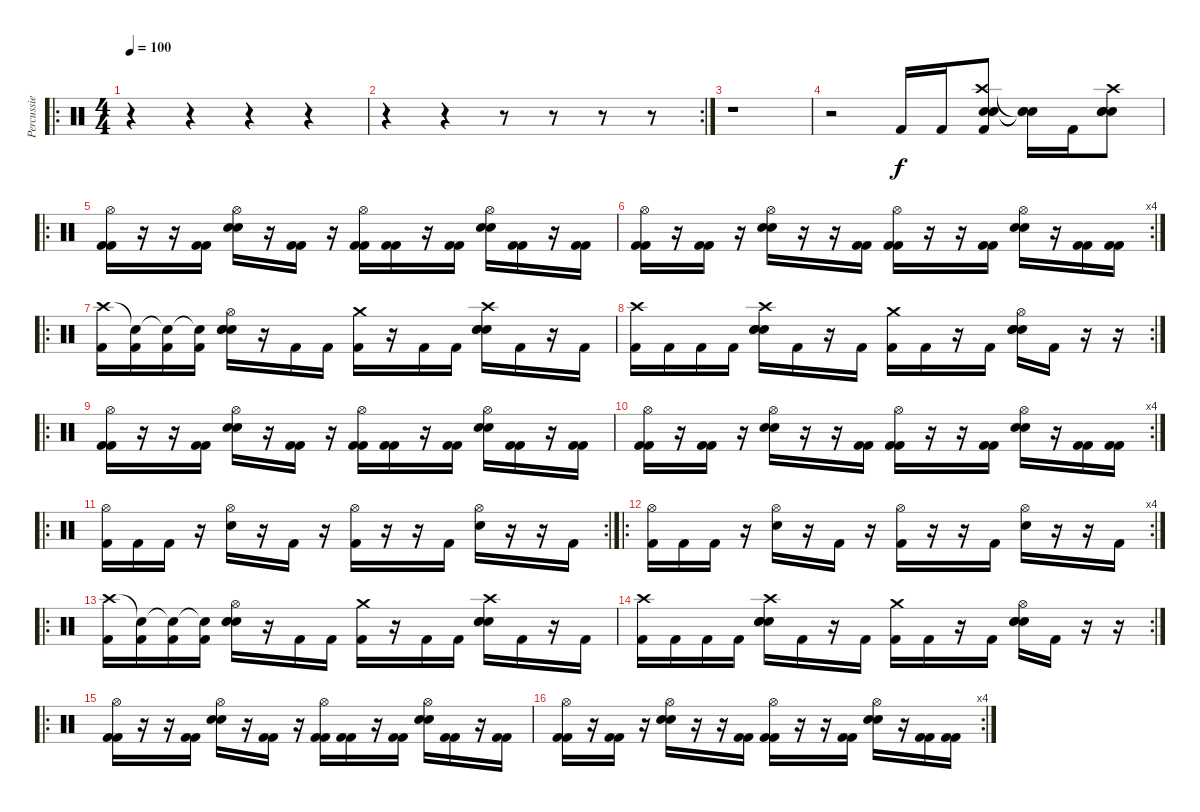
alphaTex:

\track ("Percussie" "Percussie") {instrument percussion}
\staff {score}
\articulation defaults
\ro
\ts (4 4)
\tempo 100
\clef neutral
\ks c
r.4{dy f} r.4 r.4 r.4 |
\rc 2
r.4 r.4 r.8 r.8 r.8 r.8 |
r.1 |
r.2 "Kick (hit) 2".16 "Kick (hit) 2".16 ("Crash high (hit)" "Electric Snare (hit)" "Electric Snare (hit)" "Electric Snare (hit)" "Kick (hit) 2").8 ("Snare (hit)"{t} "Snare (hit)"{t} "Snare (hit)"{t}).16 "Kick (hit) 2".16 ("Crash high (hit)" "Electric Snare (hit)" "Electric Snare (hit)" "Electric Snare (hit)").8 |
\ro
("Hi-Hat (open)" "Kick (hit) 2" "Kick (hit) 2").16 r.16 r.16 ("Kick (hit) 2" "Kick (hit) 2").16 ("Hi-Hat (open)" "Electric Snare (hit)" "Electric Snare (hit)").16 r.16 ("Kick (hit) 2" "Kick (hit) 2").16 r.16 ("Hi-Hat (open)" "Kick (hit) 2" "Kick (hit) 2").16 ("Kick (hit) 2" "Kick (hit) 2").16 r.16 ("Kick (hit) 2" "Kick (hit) 2").16 ("Hi-Hat (open)" "Electric Snare (hit)" "Electric Snare (hit)").16 ("Kick (hit) 2" "Kick (hit) 2").16 r.16 ("Kick (hit) 2" "Kick (hit) 2").16 |
\rc 4
("Hi-Hat (open)" "Kick (hit) 2" "Kick (hit) 2").16 r.16 ("Kick (hit) 2" "Kick (hit) 2").16 r.16 ("Hi-Hat (open)" "Electric Snare (hit)" "Electric Snare (hit)").16 r.16 r.16 ("Kick (hit) 2" "Kick (hit) 2").16 ("Hi-Hat (open)" "Kick (hit) 2" "Kick (hit) 2").16 r.16 r.16 ("Kick (hit) 2" "Kick (hit) 2").16 ("Hi-Hat (open)" "Electric Snare (hit)" "Electric Snare (hit)").16 r.16 ("Kick (hit) 2" "Kick (hit) 2").16 ("Kick (hit) 2" "Kick (hit) 2").16 |
\ro
("Crash high (hit)" "Kick (hit) 2").16 ("Snare (hit)"{t} "Kick (hit) 2").16 ("Snare (hit)"{t} "Kick (hit) 2").16 ("Snare (hit)"{t} "Kick (hit) 2").16 ("Hi-Hat (open)" "Electric Snare (hit)" "Electric Snare (hit)" "Electric Snare (hit)").16 r.16 "Kick (hit) 2".16 "Kick (hit) 2".16 ("Crash medium (hit)" "Kick (hit) 2").16 r.16 "Kick (hit) 2".16 "Kick (hit) 2".16 ("Crash high (hit)" "Electric Snare (hit)" "Electric Snare (hit)" "Electric Snare (hit)").16 "Kick (hit) 2".16 r.16 "Kick (hit) 2".16 |
\rc 2
("Crash high (hit)" "Kick (hit) 2").16 "Kick (hit) 2".16 "Kick (hit) 2".16 "Kick (hit) 2".16 ("Crash high (hit)" "Electric Snare (hit)" "Electric Snare (hit)" "Electric Snare (hit)").16 "Kick (hit) 2".16 r.16 "Kick (hit) 2".16 ("Crash medium (hit)" "Kick (hit) 2").16 "Kick (hit) 2".16 r.16 "Kick (hit) 2".16 ("Hi-Hat (open)" "Electric Snare (hit)" "Electric Snare (hit)" "Electric Snare (hit)").16 "Kick (hit) 2".16 r.16 r.16 |
\ro
("Hi-Hat (open)" "Kick (hit) 2" "Kick (hit) 2").16 r.16 r.16 ("Kick (hit) 2" "Kick (hit) 2").16 ("Hi-Hat (open)" "Electric Snare (hit)" "Electric Snare (hit)").16 r.16 ("Kick (hit) 2" "Kick (hit) 2").16 r.16 ("Hi-Hat (open)" "Kick (hit) 2" "Kick (hit) 2").16 ("Kick (hit) 2" "Kick (hit) 2").16 r.16 ("Kick (hit) 2" "Kick (hit) 2").16 ("Hi-Hat (open)" "Electric Snare (hit)" "Electric Snare (hit)").16 ("Kick (hit) 2" "Kick (hit) 2").16 r.16 ("Kick (hit) 2" "Kick (hit) 2").16 |
\rc 4
("Hi-Hat (open)" "Kick (hit) 2" "Kick (hit) 2").16 r.16 ("Kick (hit) 2" "Kick (hit) 2").16 r.16 ("Hi-Hat (open)" "Electric Snare (hit)" "Electric Snare (hit)").16 r.16 r.16 ("Kick (hit) 2" "Kick (hit) 2").16 ("Hi-Hat (open)" "Kick (hit) 2" "Kick (hit) 2").16 r.16 r.16 ("Kick (hit) 2" "Kick (hit) 2").16 ("Hi-Hat (open)" "Electric Snare (hit)" "Electric Snare (hit)").16 r.16 ("Kick (hit) 2" "Kick (hit) 2").16 ("Kick (hit) 2" "Kick (hit) 2").16 |
\ro
\rc 2
("Hi-Hat (open)" "Kick (hit) 2").16 "Kick (hit) 2".16 "Kick (hit) 2".16 r.16 ("Hi-Hat (open)" "Electric Snare (hit)").16 r.16 "Kick (hit) 2".16 r.16 ("Hi-Hat (open)" "Kick (hit) 2").16 r.16 r.16 "Kick (hit) 2".16 ("Hi-Hat (open)" "Electric Snare (hit)").16 r.16 r.16 "Kick (hit) 2".16 |
\ro
\rc 4
("Hi-Hat (open)" "Kick (hit) 2").16 "Kick (hit) 2".16 "Kick (hit) 2".16 r.16 ("Hi-Hat (open)" "Electric Snare (hit)").16 r.16 "Kick (hit) 2".16 r.16 ("Hi-Hat (open)" "Kick (hit) 2").16 r.16 r.16 "Kick (hit) 2".16 ("Hi-Hat (open)" "Electric Snare (hit)").16 r.16 r.16 "Kick (hit) 2".16 |
\ro
("Crash high (hit)" "Kick (hit) 2").16 ("Snare (hit)"{t} "Kick (hit) 2").16 ("Snare (hit)"{t} "Kick (hit) 2").16 ("Snare (hit)"{t} "Kick (hit) 2").16 ("Hi-Hat (open)" "Electric Snare (hit)" "Electric Snare (hit)" "Electric Snare (hit)").16 r.16 "Kick (hit) 2".16 "Kick (hit) 2".16 ("Crash medium (hit)" "Kick (hit) 2").16 r.16 "Kick (hit) 2".16 "Kick (hit) 2".16 ("Crash high (hit)" "Electric Snare (hit)" "Electric Snare (hit)" "Electric Snare (hit)").16 "Kick (hit) 2".16 r.16 "Kick (hit) 2".16 |
\rc 2
("Crash high (hit)" "Kick (hit) 2").16 "Kick (hit) 2".16 "Kick (hit) 2".16 "Kick (hit) 2".16 ("Crash high (hit)" "Electric Snare (hit)" "Electric Snare (hit)" "Electric Snare (hit)").16 "Kick (hit) 2".16 r.16 "Kick (hit) 2".16 ("Crash medium (hit)" "Kick (hit) 2").16 "Kick (hit) 2".16 r.16 "Kick (hit) 2".16 ("Hi-Hat (open)" "Electric Snare (hit)" "Electric Snare (hit)" "Electric Snare (hit)").16 "Kick (hit) 2".16 r.16 r.16 |
\ro
("Hi-Hat (open)" "Kick (hit) 2" "Kick (hit) 2").16 r.16 r.16 ("Kick (hit) 2" "Kick (hit) 2").16 ("Hi-Hat (open)" "Electric Snare (hit)" "Electric Snare (hit)").16 r.16 ("Kick (hit) 2" "Kick (hit) 2").16 r.16 ("Hi-Hat (open)" "Kick (hit) 2" "Kick (hit) 2").16 ("Kick (hit) 2" "Kick (hit) 2").16 r.16 ("Kick (hit) 2" "Kick (hit) 2").16 ("Hi-Hat (open)" "Electric Snare (hit)" "Electric Snare (hit)").16 ("Kick (hit) 2" "Kick (hit) 2").16 r.16 ("Kick (hit) 2" "Kick (hit) 2").16 |
\rc 4
("Hi-Hat (open)" "Kick (hit) 2" "Kick (hit) 2").16 r.16 ("Kick (hit) 2" "Kick (hit) 2").16 r.16 ("Hi-Hat (open)" "Electric Snare (hit)" "Electric Snare (hit)").16 r.16 r.16 ("Kick (hit) 2" "Kick (hit) 2").16 ("Hi-Hat (open)" "Kick (hit) 2" "Kick (hit) 2").16 r.16 r.16 ("Kick (hit) 2" "Kick (hit) 2").16 ("Hi-Hat (open)" "Electric Snare (hit)" "Electric Snare (hit)").16 r.16 ("Kick (hit) 2" "Kick (hit) 2").16 ("Kick (hit) 2" "Kick (hit) 2").16
